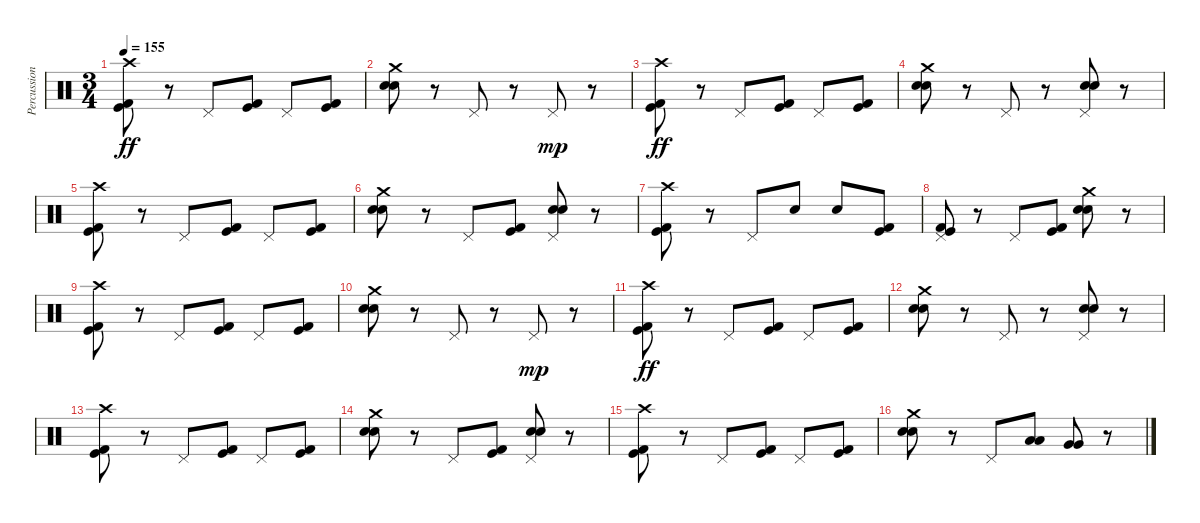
\track ("Percussion" "Percussion") {instrument percussion}
\staff {score}
\articulation defaults
\ts (3 4)
\tempo 155
\clef neutral
\ks c
("Crash high (hit)" "Kick (hit)" "Kick (hit) 2").8{dy ff} r.8 "Pedal Hi-Hat (hit)".8 ("Kick (hit)" "Kick (hit) 2").8 "Pedal Hi-Hat (hit)".8 ("Kick (hit)" "Kick (hit) 2").8 |
("Crash medium (hit)" "Electric Snare (hit)" "Electric Snare (hit)").8 r.8 "Pedal Hi-Hat (hit)".8 r.8 "Pedal Hi-Hat (hit)".8{dy mp} r.8 |
("Crash high (hit)" "Kick (hit)" "Kick (hit) 2").8{dy ff} r.8 "Pedal Hi-Hat (hit)".8 ("Kick (hit)" "Kick (hit) 2").8 "Pedal Hi-Hat (hit)".8 ("Kick (hit)" "Kick (hit) 2").8 |
("Crash medium (hit)" "Electric Snare (hit)" "Electric Snare (hit)").8 r.8 "Pedal Hi-Hat (hit)".8 r.8 ("Pedal Hi-Hat (hit)" "Electric Snare (hit)" "Electric Snare (hit)").8 r.8 |
("Crash high (hit)" "Kick (hit)" "Kick (hit) 2").8 r.8 "Pedal Hi-Hat (hit)".8 ("Kick (hit)" "Kick (hit) 2").8 "Pedal Hi-Hat (hit)".8 ("Kick (hit)" "Kick (hit) 2").8 |
("Crash medium (hit)" "Electric Snare (hit)" "Electric Snare (hit)").8 r.8 "Pedal Hi-Hat (hit)".8 ("Kick (hit)" "Kick (hit) 2").8 ("Pedal Hi-Hat (hit)" "Electric Snare (hit)" "Electric Snare (hit)").8 r.8 |
("Crash high (hit)" "Kick (hit)" "Kick (hit) 2").8 r.8 "Pedal Hi-Hat (hit)".8 "Electric Snare (hit)".8 "Electric Snare (hit)".8 ("Kick (hit)" "Kick (hit) 2").8 |
("Pedal Hi-Hat (hit)" "Kick (hit)" "Kick (hit) 2").8 r.8 "Pedal Hi-Hat (hit)".8 ("Kick (hit)" "Kick (hit) 2").8 ("Crash medium (hit)" "Electric Snare (hit)" "Electric Snare (hit)").8 r.8 |
("Crash high (hit)" "Kick (hit)" "Kick (hit) 2").8 r.8 "Pedal Hi-Hat (hit)".8 ("Kick (hit)" "Kick (hit) 2").8 "Pedal Hi-Hat (hit)".8 ("Kick (hit)" "Kick (hit) 2").8 |
("Crash medium (hit)" "Electric Snare (hit)" "Electric Snare (hit)").8 r.8 "Pedal Hi-Hat (hit)".8 r.8 "Pedal Hi-Hat (hit)".8{dy mp} r.8 |
("Crash high (hit)" "Kick (hit)" "Kick (hit) 2").8{dy ff} r.8 "Pedal Hi-Hat (hit)".8 ("Kick (hit)" "Kick (hit) 2").8 "Pedal Hi-Hat (hit)".8 ("Kick (hit)" "Kick (hit) 2").8 |
("Crash medium (hit)" "Electric Snare (hit)" "Electric Snare (hit)").8 r.8 "Pedal Hi-Hat (hit)".8 r.8 ("Pedal Hi-Hat (hit)" "Electric Snare (hit)" "Electric Snare (hit)").8 r.8 |
("Crash high (hit)" "Kick (hit)" "Kick (hit) 2").8 r.8 "Pedal Hi-Hat (hit)".8 ("Kick (hit)" "Kick (hit) 2").8 "Pedal Hi-Hat (hit)".8 ("Kick (hit)" "Kick (hit) 2").8 |
("Crash medium (hit)" "Electric Snare (hit)" "Electric Snare (hit)").8 r.8 "Pedal Hi-Hat (hit)".8 ("Kick (hit)" "Kick (hit) 2").8 ("Pedal Hi-Hat (hit)" "Electric Snare (hit)" "Electric Snare (hit)").8 r.8 |
("Crash high (hit)" "Kick (hit)" "Kick (hit) 2").8 r.8 "Pedal Hi-Hat (hit)".8 ("Kick (hit)" "Kick (hit) 2").8 "Pedal Hi-Hat (hit)".8 ("Kick (hit)" "Kick (hit) 2").8 |
("Crash medium (hit)" "Electric Snare (hit)" "Electric Snare (hit)").8 r.8 "Pedal Hi-Hat (hit)".8 ("Low Tom (hit)" "Low Tom (hit)").8 ("Very Low Tom (hit)" "Very Low Tom (hit)").8 r.8
